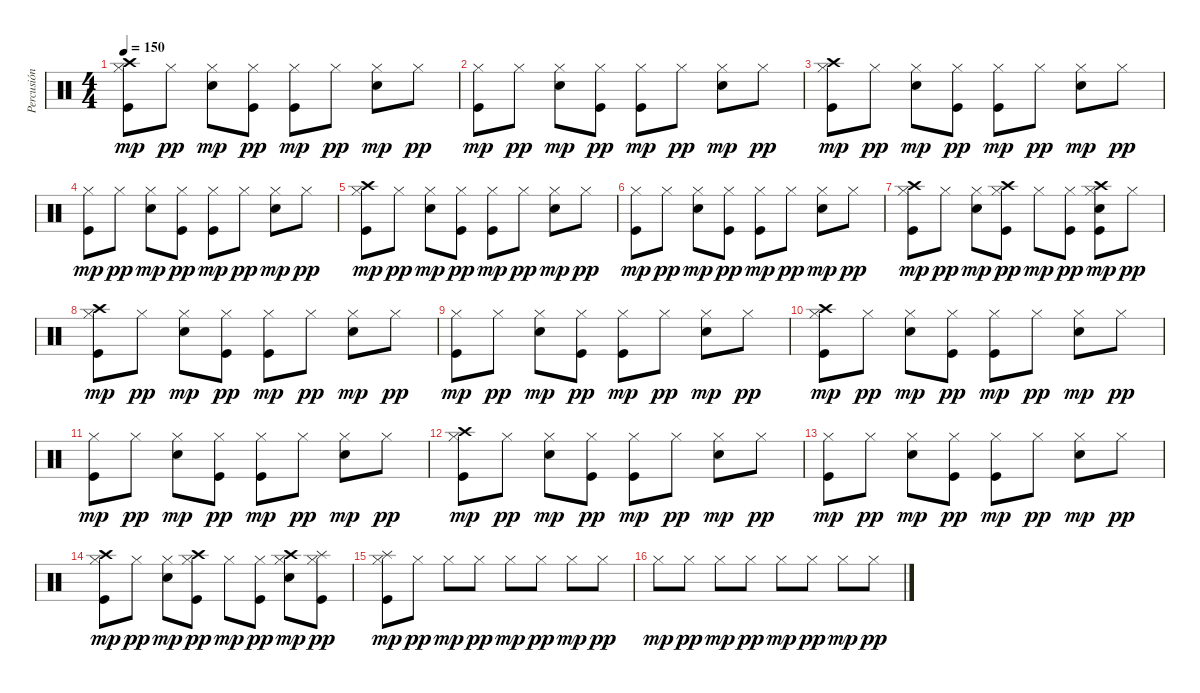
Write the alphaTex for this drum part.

\track ("Percusión" "Percusión") {instrument percussion}
\staff {score}
\articulation defaults
\ts (4 4)
\tempo 150
\clef neutral
\ks c
("Crash high (hit)" "Hi-Hat (closed)" "Kick (hit)").8{dy mp} "Hi-Hat (closed)".8{dy pp} ("Hi-Hat (closed)" "Snare (hit) 2").8{dy mp} ("Hi-Hat (closed)" "Kick (hit)").8{dy pp} ("Hi-Hat (closed)" "Kick (hit)").8{dy mp} "Hi-Hat (closed)".8{dy pp} ("Hi-Hat (closed)" "Snare (hit) 2").8{dy mp} "Hi-Hat (closed)".8{dy pp} |
("Hi-Hat (closed)" "Kick (hit)").8{dy mp} "Hi-Hat (closed)".8{dy pp} ("Hi-Hat (closed)" "Snare (hit) 2").8{dy mp} ("Hi-Hat (closed)" "Kick (hit)").8{dy pp} ("Hi-Hat (closed)" "Kick (hit)").8{dy mp} "Hi-Hat (closed)".8{dy pp} ("Hi-Hat (closed)" "Snare (hit) 2").8{dy mp} "Hi-Hat (closed)".8{dy pp} |
("Crash high (hit)" "Hi-Hat (closed)" "Kick (hit)").8{dy mp} "Hi-Hat (closed)".8{dy pp} ("Hi-Hat (closed)" "Snare (hit) 2").8{dy mp} ("Hi-Hat (closed)" "Kick (hit)").8{dy pp} ("Hi-Hat (closed)" "Kick (hit)").8{dy mp} "Hi-Hat (closed)".8{dy pp} ("Hi-Hat (closed)" "Snare (hit) 2").8{dy mp} "Hi-Hat (closed)".8{dy pp} |
("Hi-Hat (closed)" "Kick (hit)").8{dy mp} "Hi-Hat (closed)".8{dy pp} ("Hi-Hat (closed)" "Snare (hit) 2").8{dy mp} ("Hi-Hat (closed)" "Kick (hit)").8{dy pp} ("Hi-Hat (closed)" "Kick (hit)").8{dy mp} "Hi-Hat (closed)".8{dy pp} ("Hi-Hat (closed)" "Snare (hit) 2").8{dy mp} "Hi-Hat (closed)".8{dy pp} |
("Crash high (hit)" "Hi-Hat (closed)" "Kick (hit)").8{dy mp} "Hi-Hat (closed)".8{dy pp} ("Hi-Hat (closed)" "Snare (hit) 2").8{dy mp} ("Hi-Hat (closed)" "Kick (hit)").8{dy pp} ("Hi-Hat (closed)" "Kick (hit)").8{dy mp} "Hi-Hat (closed)".8{dy pp} ("Hi-Hat (closed)" "Snare (hit) 2").8{dy mp} "Hi-Hat (closed)".8{dy pp} |
("Hi-Hat (closed)" "Kick (hit)").8{dy mp} "Hi-Hat (closed)".8{dy pp} ("Hi-Hat (closed)" "Snare (hit) 2").8{dy mp} ("Hi-Hat (closed)" "Kick (hit)").8{dy pp} ("Hi-Hat (closed)" "Kick (hit)").8{dy mp} "Hi-Hat (closed)".8{dy pp} ("Hi-Hat (closed)" "Snare (hit) 2").8{dy mp} "Hi-Hat (closed)".8{dy pp} |
("Crash high (hit)" "Hi-Hat (closed)" "Kick (hit)").8{dy mp} "Hi-Hat (closed)".8{dy pp} ("Hi-Hat (closed)" "Snare (hit) 2").8{dy mp} ("Crash high (hit)" "Hi-Hat (closed)" "Kick (hit)").8{dy pp} "Hi-Hat (closed)".8{dy mp} ("Hi-Hat (closed)" "Kick (hit)").8{dy pp} ("Crash high (hit)" "Hi-Hat (closed)" "Snare (hit) 2" "Kick (hit)").8{dy mp} "Hi-Hat (closed)".8{dy pp} |
("Crash high (hit)" "Hi-Hat (closed)" "Kick (hit)").8{dy mp} "Hi-Hat (closed)".8{dy pp} ("Hi-Hat (closed)" "Snare (hit) 2").8{dy mp} ("Hi-Hat (closed)" "Kick (hit)").8{dy pp} ("Hi-Hat (closed)" "Kick (hit)").8{dy mp} "Hi-Hat (closed)".8{dy pp} ("Hi-Hat (closed)" "Snare (hit) 2").8{dy mp} "Hi-Hat (closed)".8{dy pp} |
("Hi-Hat (closed)" "Kick (hit)").8{dy mp} "Hi-Hat (closed)".8{dy pp} ("Hi-Hat (closed)" "Snare (hit) 2").8{dy mp} ("Hi-Hat (closed)" "Kick (hit)").8{dy pp} ("Hi-Hat (closed)" "Kick (hit)").8{dy mp} "Hi-Hat (closed)".8{dy pp} ("Hi-Hat (closed)" "Snare (hit) 2").8{dy mp} "Hi-Hat (closed)".8{dy pp} |
("Crash high (hit)" "Hi-Hat (closed)" "Kick (hit)").8{dy mp} "Hi-Hat (closed)".8{dy pp} ("Hi-Hat (closed)" "Snare (hit) 2").8{dy mp} ("Hi-Hat (closed)" "Kick (hit)").8{dy pp} ("Hi-Hat (closed)" "Kick (hit)").8{dy mp} "Hi-Hat (closed)".8{dy pp} ("Hi-Hat (closed)" "Snare (hit) 2").8{dy mp} "Hi-Hat (closed)".8{dy pp} |
("Hi-Hat (closed)" "Kick (hit)").8{dy mp} "Hi-Hat (closed)".8{dy pp} ("Hi-Hat (closed)" "Snare (hit) 2").8{dy mp} ("Hi-Hat (closed)" "Kick (hit)").8{dy pp} ("Hi-Hat (closed)" "Kick (hit)").8{dy mp} "Hi-Hat (closed)".8{dy pp} ("Hi-Hat (closed)" "Snare (hit) 2").8{dy mp} "Hi-Hat (closed)".8{dy pp} |
("Crash high (hit)" "Hi-Hat (closed)" "Kick (hit)").8{dy mp} "Hi-Hat (closed)".8{dy pp} ("Hi-Hat (closed)" "Snare (hit) 2").8{dy mp} ("Hi-Hat (closed)" "Kick (hit)").8{dy pp} ("Hi-Hat (closed)" "Kick (hit)").8{dy mp} "Hi-Hat (closed)".8{dy pp} ("Hi-Hat (closed)" "Snare (hit) 2").8{dy mp} "Hi-Hat (closed)".8{dy pp} |
("Hi-Hat (closed)" "Kick (hit)").8{dy mp} "Hi-Hat (closed)".8{dy pp} ("Hi-Hat (closed)" "Snare (hit) 2").8{dy mp} ("Hi-Hat (closed)" "Kick (hit)").8{dy pp} ("Hi-Hat (closed)" "Kick (hit)").8{dy mp} "Hi-Hat (closed)".8{dy pp} ("Hi-Hat (closed)" "Snare (hit) 2").8{dy mp} "Hi-Hat (closed)".8{dy pp} |
("Crash high (hit)" "Hi-Hat (closed)" "Kick (hit)").8{dy mp} "Hi-Hat (closed)".8{dy pp} ("Hi-Hat (closed)" "Snare (hit) 2").8{dy mp} ("Crash high (hit)" "Hi-Hat (closed)" "Kick (hit)").8{dy pp} "Hi-Hat (closed)".8{dy mp} ("Hi-Hat (closed)" "Kick (hit)").8{dy pp} ("Crash high (hit)" "Hi-Hat (closed)" "Snare (hit) 2").8{dy mp} ("Splash (hit)" "Hi-Hat (closed)" "Kick (hit)").8{dy pp} |
("Splash (hit)" "Hi-Hat (closed)" "Kick (hit)").8{dy mp} "Hi-Hat (closed)".8{dy pp} "Hi-Hat (closed)".8{dy mp} "Hi-Hat (closed)".8{dy pp} "Hi-Hat (closed)".8{dy mp} "Hi-Hat (closed)".8{dy pp} "Hi-Hat (closed)".8{dy mp} "Hi-Hat (closed)".8{dy pp} |
"Hi-Hat (closed)".8{dy mp} "Hi-Hat (closed)".8{dy pp} "Hi-Hat (closed)".8{dy mp} "Hi-Hat (closed)".8{dy pp} "Hi-Hat (closed)".8{dy mp} "Hi-Hat (closed)".8{dy pp} "Hi-Hat (closed)".8{dy mp} "Hi-Hat (closed)".8{dy pp}
